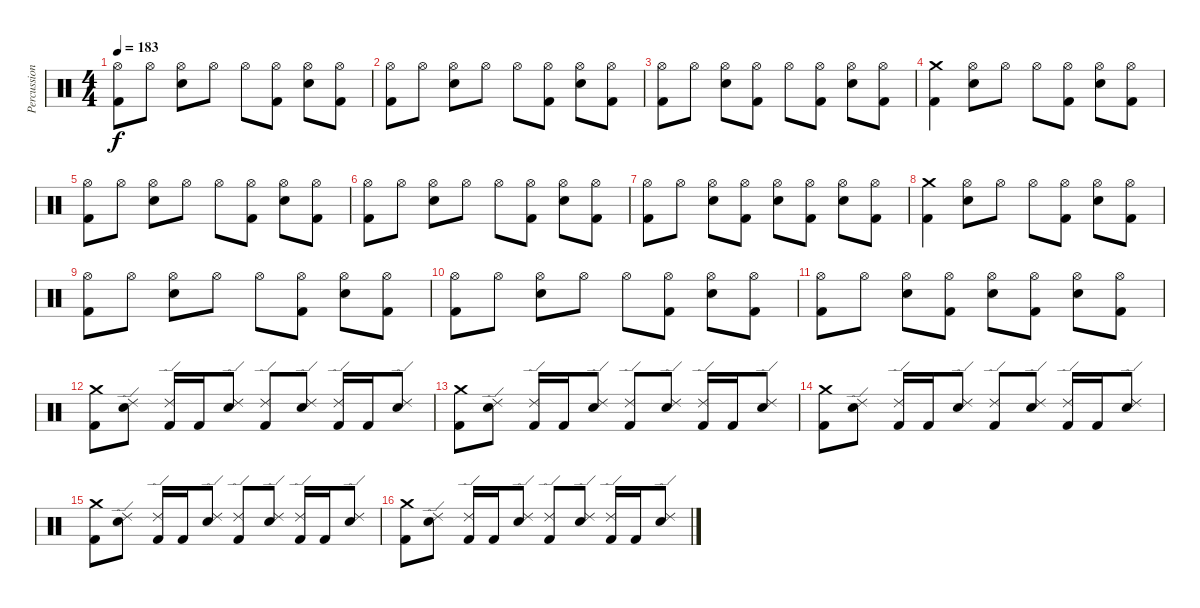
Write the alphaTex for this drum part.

\track ("Percussion" "Percussion") {instrument percussion}
\staff {score}
\articulation defaults
\ts (4 4)
\tempo 183
\clef neutral
\ks c
("Hi-Hat (open)" "Kick (hit) 2").8{dy f} "Hi-Hat (open)".8 ("Hi-Hat (open)" "Snare (hit) 2").8 "Hi-Hat (open)".8 "Hi-Hat (open)".8 ("Hi-Hat (open)" "Kick (hit) 2").8 ("Hi-Hat (open)" "Snare (hit) 2").8 ("Hi-Hat (open)" "Kick (hit) 2").8 |
("Hi-Hat (open)" "Kick (hit) 2").8 "Hi-Hat (open)".8 ("Hi-Hat (open)" "Snare (hit) 2").8 "Hi-Hat (open)".8 "Hi-Hat (open)".8 ("Hi-Hat (open)" "Kick (hit) 2").8 ("Hi-Hat (open)" "Snare (hit) 2").8 ("Hi-Hat (open)" "Kick (hit) 2").8 |
("Hi-Hat (open)" "Kick (hit) 2").8 "Hi-Hat (open)".8 ("Hi-Hat (open)" "Snare (hit) 2").8 ("Hi-Hat (open)" "Kick (hit) 2").8 "Hi-Hat (open)".8 ("Hi-Hat (open)" "Kick (hit) 2").8 ("Hi-Hat (open)" "Snare (hit) 2").8 ("Hi-Hat (open)" "Kick (hit) 2").8 |
("Crash medium (hit)" "Kick (hit) 2").4 ("Hi-Hat (open)" "Snare (hit) 2").8 "Hi-Hat (open)".8 "Hi-Hat (open)".8 ("Hi-Hat (open)" "Kick (hit) 2").8 ("Hi-Hat (open)" "Snare (hit) 2").8 ("Hi-Hat (open)" "Kick (hit) 2").8 |
("Hi-Hat (open)" "Kick (hit) 2").8 "Hi-Hat (open)".8 ("Hi-Hat (open)" "Snare (hit) 2").8 "Hi-Hat (open)".8 "Hi-Hat (open)".8 ("Hi-Hat (open)" "Kick (hit) 2").8 ("Hi-Hat (open)" "Snare (hit) 2").8 ("Hi-Hat (open)" "Kick (hit) 2").8 |
("Hi-Hat (open)" "Kick (hit) 2").8 "Hi-Hat (open)".8 ("Hi-Hat (open)" "Snare (hit) 2").8 "Hi-Hat (open)".8 "Hi-Hat (open)".8 ("Hi-Hat (open)" "Kick (hit) 2").8 ("Hi-Hat (open)" "Snare (hit) 2").8 ("Hi-Hat (open)" "Kick (hit) 2").8 |
("Hi-Hat (open)" "Kick (hit) 2").8 "Hi-Hat (open)".8 ("Hi-Hat (open)" "Snare (hit) 2").8 ("Hi-Hat (open)" "Kick (hit) 2").8 ("Hi-Hat (open)" "Snare (hit) 2").8 ("Hi-Hat (open)" "Kick (hit) 2").8 ("Hi-Hat (open)" "Snare (hit) 2").8 ("Hi-Hat (open)" "Kick (hit) 2").8 |
("Crash medium (hit)" "Kick (hit) 2").4 ("Hi-Hat (open)" "Snare (hit) 2").8 "Hi-Hat (open)".8 "Hi-Hat (open)".8 ("Hi-Hat (open)" "Kick (hit) 2").8 ("Hi-Hat (open)" "Snare (hit) 2").8 ("Hi-Hat (open)" "Kick (hit) 2").8 |
("Hi-Hat (open)" "Kick (hit) 2").8 "Hi-Hat (open)".8 ("Hi-Hat (open)" "Snare (hit) 2").8 "Hi-Hat (open)".8 "Hi-Hat (open)".8 ("Hi-Hat (open)" "Kick (hit) 2").8 ("Hi-Hat (open)" "Snare (hit) 2").8 ("Hi-Hat (open)" "Kick (hit) 2").8 |
("Hi-Hat (open)" "Kick (hit) 2").8 "Hi-Hat (open)".8 ("Hi-Hat (open)" "Snare (hit) 2").8 "Hi-Hat (open)".8 "Hi-Hat (open)".8 ("Hi-Hat (open)" "Kick (hit) 2").8 ("Hi-Hat (open)" "Snare (hit) 2").8 ("Hi-Hat (open)" "Kick (hit) 2").8 |
("Hi-Hat (open)" "Kick (hit) 2").8 "Hi-Hat (open)".8 ("Hi-Hat (open)" "Snare (hit) 2").8 ("Hi-Hat (open)" "Kick (hit) 2").8 ("Hi-Hat (open)" "Snare (hit) 2").8 ("Hi-Hat (open)" "Kick (hit) 2").8 ("Hi-Hat (open)" "Snare (hit) 2").8 ("Hi-Hat (open)" "Kick (hit) 2").8 |
("Crash medium (hit)" "Kick (hit) 2").8 ("Ride (edge) 2" "Snare (hit) 2").8 ("Ride (edge) 2" "Kick (hit) 2").16 "Kick (hit) 2".16 ("Ride (edge) 2" "Snare (hit) 2").8 ("Ride (edge) 2" "Kick (hit) 2").8 ("Ride (edge) 2" "Snare (hit) 2").8 ("Ride (edge) 2" "Kick (hit) 2").16 "Kick (hit) 2".16 ("Ride (edge) 2" "Snare (hit) 2").8 |
("Crash medium (hit)" "Kick (hit) 2").8 ("Ride (edge) 2" "Snare (hit) 2").8 ("Ride (edge) 2" "Kick (hit) 2").16 "Kick (hit) 2".16 ("Ride (edge) 2" "Snare (hit) 2").8 ("Ride (edge) 2" "Kick (hit) 2").8 ("Ride (edge) 2" "Snare (hit) 2").8 ("Ride (edge) 2" "Kick (hit) 2").16 "Kick (hit) 2".16 ("Ride (edge) 2" "Snare (hit) 2").8 |
("Crash medium (hit)" "Kick (hit) 2").8 ("Ride (edge) 2" "Snare (hit) 2").8 ("Ride (edge) 2" "Kick (hit) 2").16 "Kick (hit) 2".16 ("Ride (edge) 2" "Snare (hit) 2").8 ("Ride (edge) 2" "Kick (hit) 2").8 ("Ride (edge) 2" "Snare (hit) 2").8 ("Ride (edge) 2" "Kick (hit) 2").16 "Kick (hit) 2".16 ("Ride (edge) 2" "Snare (hit) 2").8 |
("Crash medium (hit)" "Kick (hit) 2").8 ("Ride (edge) 2" "Snare (hit) 2").8 ("Ride (edge) 2" "Kick (hit) 2").16 "Kick (hit) 2".16 ("Ride (edge) 2" "Snare (hit) 2").8 ("Ride (edge) 2" "Kick (hit) 2").8 ("Ride (edge) 2" "Snare (hit) 2").8 ("Ride (edge) 2" "Kick (hit) 2").16 "Kick (hit) 2".16 ("Ride (edge) 2" "Snare (hit) 2").8 |
("Crash medium (hit)" "Kick (hit) 2").8 ("Ride (edge) 2" "Snare (hit) 2").8 ("Ride (edge) 2" "Kick (hit) 2").16 "Kick (hit) 2".16 ("Ride (edge) 2" "Snare (hit) 2").8 ("Ride (edge) 2" "Kick (hit) 2").8 ("Ride (edge) 2" "Snare (hit) 2").8 ("Ride (edge) 2" "Kick (hit) 2").16 "Kick (hit) 2".16 ("Ride (edge) 2" "Snare (hit) 2").8
